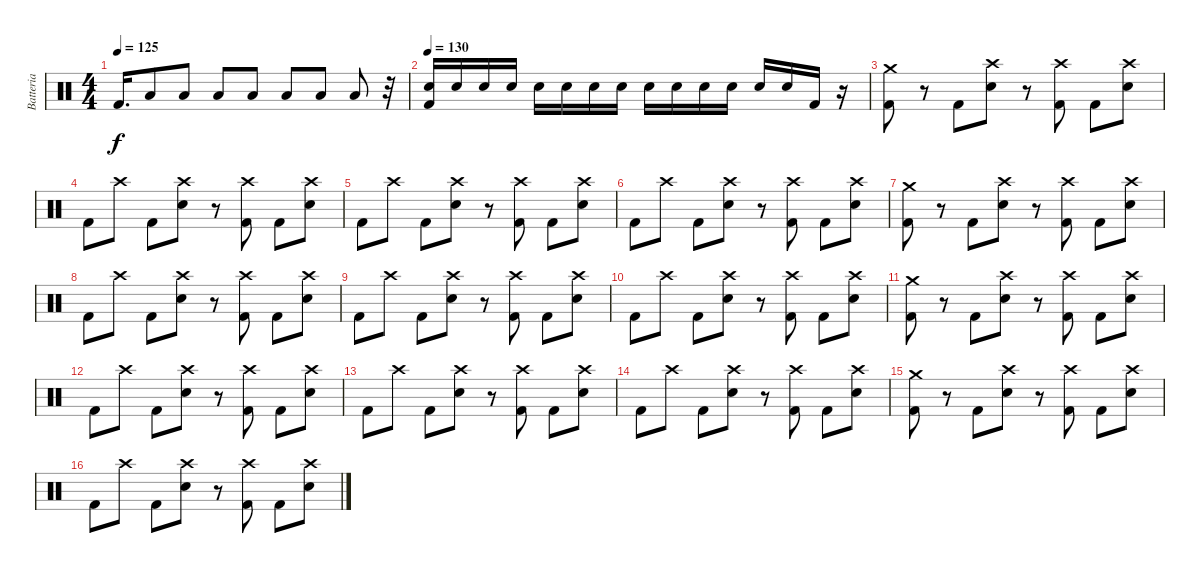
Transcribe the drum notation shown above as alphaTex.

\track ("Batteria" "Batteria") {instrument percussion}
\staff {score}
\articulation defaults
\ts (4 4)
\tempo 125
\clef neutral
\ks c "Kick (hit) 2".16{d dy f} "Low Floor Tom (hit)".8 "Low Floor Tom (hit)".8 "Low Floor Tom (hit)".8 "Low Floor Tom (hit)".8 "Low Floor Tom (hit)".8 "Low Floor Tom (hit)".8 "Low Floor Tom (hit)".8
r.32 |
\tempo 130
("Kick (hit) 2" "Electric Snare (hit)").16 "Electric Snare (hit)".16 "Electric Snare (hit)".16 "Electric Snare (hit)".16 "Electric Snare (hit)".16 "Electric Snare (hit)".16 "Electric Snare (hit)".16 "Electric Snare (hit)".16 "Electric Snare (hit)".16 "Electric Snare (hit)".16 "Electric Snare (hit)".16 "Electric Snare (hit)".16 "Electric Snare (hit)".16 "Electric Snare (hit)".16 "Kick (hit) 2".16 r.16 |
("Crash medium (hit)" "Kick (hit) 2").8 r.8 "Kick (hit) 2".8 ("Crash high (hit)" "Electric Snare (hit)").8 r.8 ("Crash high (hit)" "Kick (hit) 2").8 "Kick (hit) 2".8 ("Crash high (hit)" "Electric Snare (hit)").8 |
"Kick (hit) 2".8 "Crash high (hit)".8 "Kick (hit) 2".8 ("Electric Snare (hit)" "Crash high (hit)").8 r.8 ("Kick (hit) 2" "Crash high (hit)").8 "Kick (hit) 2".8 ("Electric Snare (hit)" "Crash high (hit)").8 |
"Kick (hit) 2".8 "Crash high (hit)".8 "Kick (hit) 2".8 ("Crash high (hit)" "Electric Snare (hit)").8 r.8 ("Crash high (hit)" "Kick (hit) 2").8 "Kick (hit) 2".8 ("Crash high (hit)" "Electric Snare (hit)").8 |
"Kick (hit) 2".8 "Crash high (hit)".8 "Kick (hit) 2".8 ("Electric Snare (hit)" "Crash high (hit)").8 r.8 ("Kick (hit) 2" "Crash high (hit)").8 "Kick (hit) 2".8 ("Electric Snare (hit)" "Crash high (hit)").8 |
("Crash medium (hit)" "Kick (hit) 2").8 r.8 "Kick (hit) 2".8 ("Crash high (hit)" "Electric Snare (hit)").8 r.8 ("Crash high (hit)" "Kick (hit) 2").8 "Kick (hit) 2".8 ("Crash high (hit)" "Electric Snare (hit)").8 |
"Kick (hit) 2".8 "Crash high (hit)".8 "Kick (hit) 2".8 ("Electric Snare (hit)" "Crash high (hit)").8 r.8 ("Kick (hit) 2" "Crash high (hit)").8 "Kick (hit) 2".8 ("Electric Snare (hit)" "Crash high (hit)").8 |
"Kick (hit) 2".8 "Crash high (hit)".8 "Kick (hit) 2".8 ("Crash high (hit)" "Electric Snare (hit)").8 r.8 ("Crash high (hit)" "Kick (hit) 2").8 "Kick (hit) 2".8 ("Crash high (hit)" "Electric Snare (hit)").8 |
"Kick (hit) 2".8 "Crash high (hit)".8 "Kick (hit) 2".8 ("Electric Snare (hit)" "Crash high (hit)").8 r.8 ("Crash high (hit)" "Kick (hit) 2").8 "Kick (hit) 2".8 ("Crash high (hit)" "Electric Snare (hit)").8 |
("Crash medium (hit)" "Kick (hit) 2").8 r.8 "Kick (hit) 2".8 ("Crash high (hit)" "Electric Snare (hit)").8 r.8 ("Crash high (hit)" "Kick (hit) 2").8 "Kick (hit) 2".8 ("Crash high (hit)" "Electric Snare (hit)").8 |
"Kick (hit) 2".8 "Crash high (hit)".8 "Kick (hit) 2".8 ("Electric Snare (hit)" "Crash high (hit)").8 r.8 ("Kick (hit) 2" "Crash high (hit)").8 "Kick (hit) 2".8 ("Electric Snare (hit)" "Crash high (hit)").8 |
"Kick (hit) 2".8 "Crash high (hit)".8 "Kick (hit) 2".8 ("Crash high (hit)" "Electric Snare (hit)").8 r.8 ("Crash high (hit)" "Kick (hit) 2").8 "Kick (hit) 2".8 ("Crash high (hit)" "Electric Snare (hit)").8 |
"Kick (hit) 2".8 "Crash high (hit)".8 "Kick (hit) 2".8 ("Electric Snare (hit)" "Crash high (hit)").8 r.8 ("Kick (hit) 2" "Crash high (hit)").8 "Kick (hit) 2".8 ("Electric Snare (hit)" "Crash high (hit)").8 |
("Crash medium (hit)" "Kick (hit) 2").8 r.8 "Kick (hit) 2".8 ("Crash high (hit)" "Electric Snare (hit)").8 r.8 ("Crash high (hit)" "Kick (hit) 2").8 "Kick (hit) 2".8 ("Crash high (hit)" "Electric Snare (hit)").8 |
"Kick (hit) 2".8 "Crash high (hit)".8 "Kick (hit) 2".8 ("Electric Snare (hit)" "Crash high (hit)").8 r.8 ("Kick (hit) 2" "Crash high (hit)").8 "Kick (hit) 2".8 ("Electric Snare (hit)" "Crash high (hit)").8
